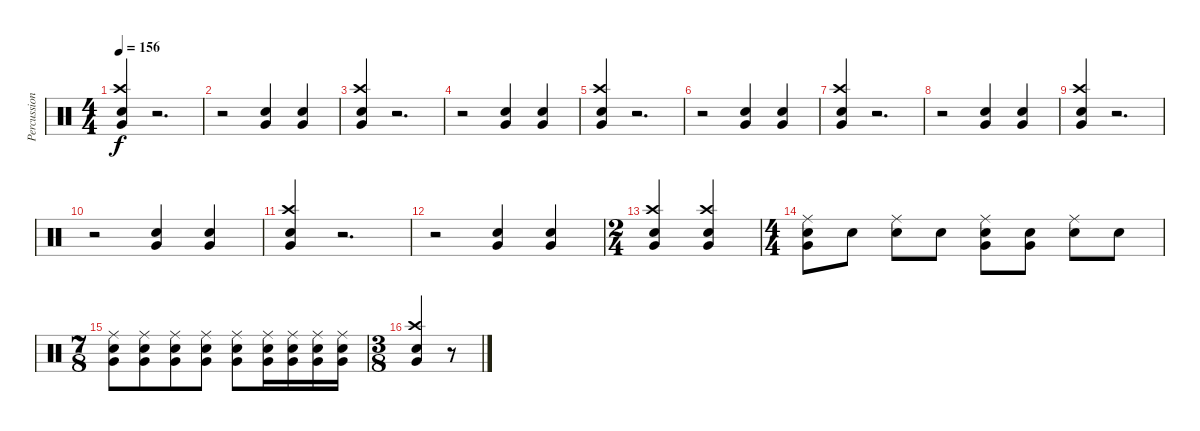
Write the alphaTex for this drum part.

\track ("Percussions" "Percussion") {instrument percussion}
\staff {score}
\articulation defaults
\ts (4 4)
\tempo 156
\clef neutral
\ks c
("Very Low Tom (hit)" "Crash high (hit)" "Electric Snare (hit)").4{dy f} r.2{d} |
r.2 ("Very Low Tom (hit)" "Electric Snare (hit)").4 ("Very Low Tom (hit)" "Electric Snare (hit)").4 |
("Very Low Tom (hit)" "Crash high (hit)" "Electric Snare (hit)").4 r.2{d} |
r.2 ("Very Low Tom (hit)" "Electric Snare (hit)").4 ("Very Low Tom (hit)" "Electric Snare (hit)").4 |
("Very Low Tom (hit)" "Crash high (hit)" "Electric Snare (hit)").4 r.2{d} |
r.2 ("Very Low Tom (hit)" "Electric Snare (hit)").4 ("Very Low Tom (hit)" "Electric Snare (hit)").4 |
("Very Low Tom (hit)" "Crash high (hit)" "Electric Snare (hit)").4 r.2{d} |
r.2 ("Very Low Tom (hit)" "Electric Snare (hit)").4 ("Very Low Tom (hit)" "Electric Snare (hit)").4 |
("Very Low Tom (hit)" "Crash high (hit)" "Electric Snare (hit)").4 r.2{d} |
r.2 ("Very Low Tom (hit)" "Electric Snare (hit)").4 ("Very Low Tom (hit)" "Electric Snare (hit)").4 |
("Very Low Tom (hit)" "Crash high (hit)" "Electric Snare (hit)").4 r.2{d} |
r.2 ("Very Low Tom (hit)" "Electric Snare (hit)").4 ("Very Low Tom (hit)" "Electric Snare (hit)").4 |
\ts (2 4)
("Very Low Tom (hit)" "Crash high (hit)" "Electric Snare (hit)").4 ("Very Low Tom (hit)" "Crash high (hit)" "Electric Snare (hit)").4 |
\ts (4 4)
("Very Low Tom (hit)" "Electric Snare (hit)" "Ride (middle)").8 "Electric Snare (hit)".8 ("Electric Snare (hit)" "Ride (middle)").8 "Electric Snare (hit)".8 ("Very Low Tom (hit)" "Electric Snare (hit)" "Ride (middle)").8 ("Very Low Tom (hit)" "Electric Snare (hit)").8 ("Electric Snare (hit)" "Ride (middle)").8 "Electric Snare (hit)".8 |
\ts (7 8)
("Very Low Tom (hit)" "Electric Snare (hit)" "Ride (middle)").8 ("Very Low Tom (hit)" "Electric Snare (hit)" "Ride (middle)").8 ("Very Low Tom (hit)" "Electric Snare (hit)" "Ride (middle)").8 ("Very Low Tom (hit)" "Electric Snare (hit)" "Ride (middle)").8 ("Very Low Tom (hit)" "Electric Snare (hit)" "Ride (middle)").8 ("Very Low Tom (hit)" "Electric Snare (hit)" "Ride (middle)").16 ("Very Low Tom (hit)" "Electric Snare (hit)" "Ride (middle)").16 ("Very Low Tom (hit)" "Electric Snare (hit)" "Ride (middle)").16 ("Very Low Tom (hit)" "Electric Snare (hit)" "Ride (middle)").16 |
\ts (3 8)
("Very Low Tom (hit)" "Electric Snare (hit)" "Crash high (hit)").4 r.8
